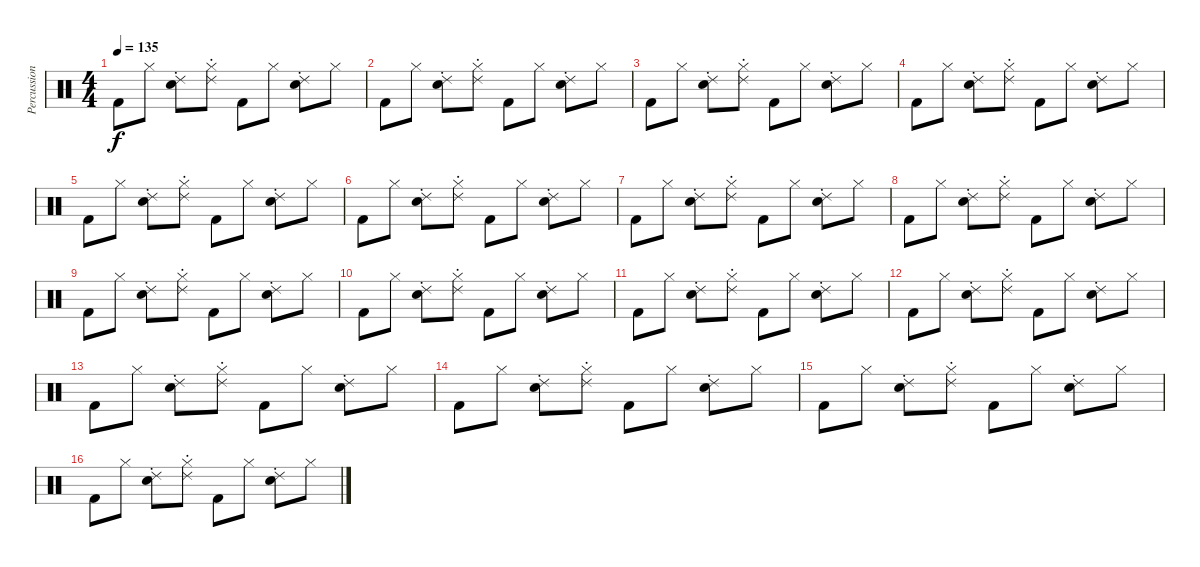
\track ("Percussion" "Percussion") {instrument percussion}
\staff {score}
\articulation defaults
\ts (4 4)
\tempo 135
\clef neutral
\ks c "Kick (hit) 2".8{dy f} "Hi-Hat (closed)".8
("Snare (hit) 2" "Ride (choke) 2").8 ("Hi-Hat (closed)" "Ride (choke) 2").8 "Kick (hit) 2".8 "Hi-Hat (closed)".8 ("Snare (hit) 2" "Ride (choke) 2").8 "Hi-Hat (closed)".8 |
"Kick (hit) 2".8 "Hi-Hat (closed)".8 ("Snare (hit) 2" "Ride (choke) 2").8 ("Hi-Hat (closed)" "Ride (choke) 2").8 "Kick (hit) 2".8 "Hi-Hat (closed)".8 ("Snare (hit) 2" "Ride (choke) 2").8 "Hi-Hat (closed)".8 |
"Kick (hit) 2".8 "Hi-Hat (closed)".8 ("Snare (hit) 2" "Ride (choke) 2").8 ("Hi-Hat (closed)" "Ride (choke) 2").8 "Kick (hit) 2".8 "Hi-Hat (closed)".8 ("Snare (hit) 2" "Ride (choke) 2").8 "Hi-Hat (closed)".8 |
"Kick (hit) 2".8 "Hi-Hat (closed)".8 ("Snare (hit) 2" "Ride (choke) 2").8 ("Hi-Hat (closed)" "Ride (choke) 2").8 "Kick (hit) 2".8 "Hi-Hat (closed)".8 ("Snare (hit) 2" "Ride (choke) 2").8 "Hi-Hat (closed)".8 |
"Kick (hit) 2".8 "Hi-Hat (closed)".8 ("Snare (hit) 2" "Ride (choke) 2").8 ("Hi-Hat (closed)" "Ride (choke) 2").8 "Kick (hit) 2".8 "Hi-Hat (closed)".8 ("Snare (hit) 2" "Ride (choke) 2").8 "Hi-Hat (closed)".8 |
"Kick (hit) 2".8 "Hi-Hat (closed)".8 ("Snare (hit) 2" "Ride (choke) 2").8 ("Hi-Hat (closed)" "Ride (choke) 2").8 "Kick (hit) 2".8 "Hi-Hat (closed)".8 ("Snare (hit) 2" "Ride (choke) 2").8 "Hi-Hat (closed)".8 |
"Kick (hit) 2".8 "Hi-Hat (closed)".8 ("Snare (hit) 2" "Ride (choke) 2").8 ("Hi-Hat (closed)" "Ride (choke) 2").8 "Kick (hit) 2".8 "Hi-Hat (closed)".8 ("Snare (hit) 2" "Ride (choke) 2").8 "Hi-Hat (closed)".8 |
"Kick (hit) 2".8 "Hi-Hat (closed)".8 ("Snare (hit) 2" "Ride (choke) 2").8 ("Hi-Hat (closed)" "Ride (choke) 2").8 "Kick (hit) 2".8 "Hi-Hat (closed)".8 ("Snare (hit) 2" "Ride (choke) 2").8 "Hi-Hat (closed)".8 |
"Kick (hit) 2".8 "Hi-Hat (closed)".8 ("Snare (hit) 2" "Ride (choke) 2").8 ("Hi-Hat (closed)" "Ride (choke) 2").8 "Kick (hit) 2".8 "Hi-Hat (closed)".8 ("Snare (hit) 2" "Ride (choke) 2").8 "Hi-Hat (closed)".8 |
"Kick (hit) 2".8 "Hi-Hat (closed)".8 ("Snare (hit) 2" "Ride (choke) 2").8 ("Hi-Hat (closed)" "Ride (choke) 2").8 "Kick (hit) 2".8 "Hi-Hat (closed)".8 ("Snare (hit) 2" "Ride (choke) 2").8 "Hi-Hat (closed)".8 |
"Kick (hit) 2".8 "Hi-Hat (closed)".8 ("Snare (hit) 2" "Ride (choke) 2").8 ("Hi-Hat (closed)" "Ride (choke) 2").8 "Kick (hit) 2".8 "Hi-Hat (closed)".8 ("Snare (hit) 2" "Ride (choke) 2").8 "Hi-Hat (closed)".8 |
"Kick (hit) 2".8 "Hi-Hat (closed)".8 ("Snare (hit) 2" "Ride (choke) 2").8 ("Hi-Hat (closed)" "Ride (choke) 2").8 "Kick (hit) 2".8 "Hi-Hat (closed)".8 ("Snare (hit) 2" "Ride (choke) 2").8 "Hi-Hat (closed)".8 |
"Kick (hit) 2".8 "Hi-Hat (closed)".8 ("Snare (hit) 2" "Ride (choke) 2").8 ("Hi-Hat (closed)" "Ride (choke) 2").8 "Kick (hit) 2".8 "Hi-Hat (closed)".8 ("Snare (hit) 2" "Ride (choke) 2").8 "Hi-Hat (closed)".8 |
"Kick (hit) 2".8 "Hi-Hat (closed)".8 ("Snare (hit) 2" "Ride (choke) 2").8 ("Hi-Hat (closed)" "Ride (choke) 2").8 "Kick (hit) 2".8 "Hi-Hat (closed)".8 ("Snare (hit) 2" "Ride (choke) 2").8 "Hi-Hat (closed)".8 |
"Kick (hit) 2".8 "Hi-Hat (closed)".8 ("Snare (hit) 2" "Ride (choke) 2").8 ("Hi-Hat (closed)" "Ride (choke) 2").8 "Kick (hit) 2".8 "Hi-Hat (closed)".8 ("Snare (hit) 2" "Ride (choke) 2").8 "Hi-Hat (closed)".8 |
"Kick (hit) 2".8 "Hi-Hat (closed)".8 ("Snare (hit) 2" "Ride (choke) 2").8 ("Hi-Hat (closed)" "Ride (choke) 2").8 "Kick (hit) 2".8 "Hi-Hat (closed)".8 ("Snare (hit) 2" "Ride (choke) 2").8 "Hi-Hat (closed)".8
